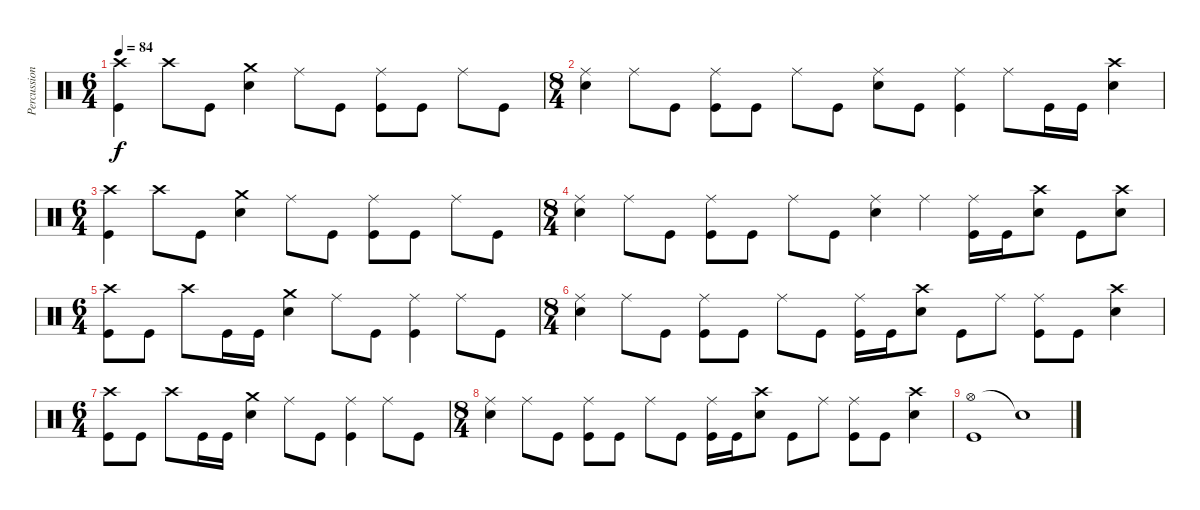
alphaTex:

\track ("Percussion" "Percussion") {instrument percussion}
\staff {score}
\articulation defaults
\ts (6 4)
\tempo 84
\clef neutral
\ks c
("Crash high (hit)" "Kick (hit)").4{dy f} "Crash high (hit)".8 "Kick (hit)".8 ("Crash medium (hit)" "Snare (hit) 2").4 "Ride (middle)".8 "Kick (hit)".8 ("Ride (middle)" "Kick (hit)").8 "Kick (hit)".8 "Ride (middle)".8 "Kick (hit)".8 |
\ts (8 4)
("Ride (middle)" "Snare (hit) 2").4 "Ride (middle)".8 "Kick (hit)".8 ("Ride (middle)" "Kick (hit)").8 "Kick (hit)".8 "Ride (middle)".8 "Kick (hit)".8 ("Ride (middle)" "Snare (hit) 2").8 "Kick (hit)".8 ("Ride (middle)" "Kick (hit)").4 "Ride (middle)".8 "Kick (hit)".16 "Kick (hit)".16 ("Crash high (hit)" "Snare (hit) 2").4 |
\ts (6 4)
("Crash high (hit)" "Kick (hit)").4 "Crash high (hit)".8 "Kick (hit)".8 ("Crash medium (hit)" "Snare (hit) 2").4 "Ride (middle)".8 "Kick (hit)".8 ("Ride (middle)" "Kick (hit)").8 "Kick (hit)".8 "Ride (middle)".8 "Kick (hit)".8 |
\ts (8 4)
("Ride (middle)" "Snare (hit) 2").4 "Ride (middle)".8 "Kick (hit)".8 ("Ride (middle)" "Kick (hit)").8 "Kick (hit)".8 "Ride (middle)".8 "Kick (hit)".8 ("Ride (middle)" "Snare (hit) 2").4 "Ride (middle)".4 ("Ride (middle)" "Kick (hit)").16 "Kick (hit)".16 ("Crash high (hit)" "Snare (hit) 2").8 "Kick (hit)".8 ("Crash high (hit)" "Snare (hit) 2").8 |
\ts (6 4)
("Crash high (hit)" "Kick (hit)").8 "Kick (hit)".8 "Crash high (hit)".8 "Kick (hit)".16 "Kick (hit)".16 ("Crash medium (hit)" "Snare (hit) 2").4 "Ride (middle)".8 "Kick (hit)".8 ("Ride (middle)" "Kick (hit)").4 "Ride (middle)".8 "Kick (hit)".8 |
\ts (8 4)
("Ride (middle)" "Snare (hit) 2").4 "Ride (middle)".8 "Kick (hit)".8 ("Ride (middle)" "Kick (hit)").8 "Kick (hit)".8 "Ride (middle)".8 "Kick (hit)".8 ("Ride (middle)" "Kick (hit)").16 "Kick (hit)".16 ("Crash high (hit)" "Snare (hit) 2").8 "Kick (hit)".8 "Ride (middle)".8 ("Ride (middle)" "Kick (hit)").8 "Kick (hit)".8 ("Crash high (hit)" "Snare (hit) 2").4 |
\ts (6 4)
("Crash high (hit)" "Kick (hit)").8 "Kick (hit)".8 "Crash high (hit)".8 "Kick (hit)".16 "Kick (hit)".16 ("Crash medium (hit)" "Snare (hit) 2").4 "Ride (middle)".8 "Kick (hit)".8 ("Ride (middle)" "Kick (hit)").4 "Ride (middle)".8 "Kick (hit)".8 |
\ts (8 4)
("Ride (middle)" "Snare (hit) 2").4 "Ride (middle)".8 "Kick (hit)".8 ("Ride (middle)" "Kick (hit)").8 "Kick (hit)".8 "Ride (middle)".8 "Kick (hit)".8 ("Ride (middle)" "Kick (hit)").16 "Kick (hit)".16 ("Crash high (hit)" "Snare (hit) 2").8 "Kick (hit)".8 "Ride (middle)".8 ("Ride (middle)" "Kick (hit)").8 "Kick (hit)".8 ("Crash high (hit)" "Snare (hit) 2").4 |
("Hi-Hat (open)" "Kick (hit)").1 "Snare (hit)"{t}.1
